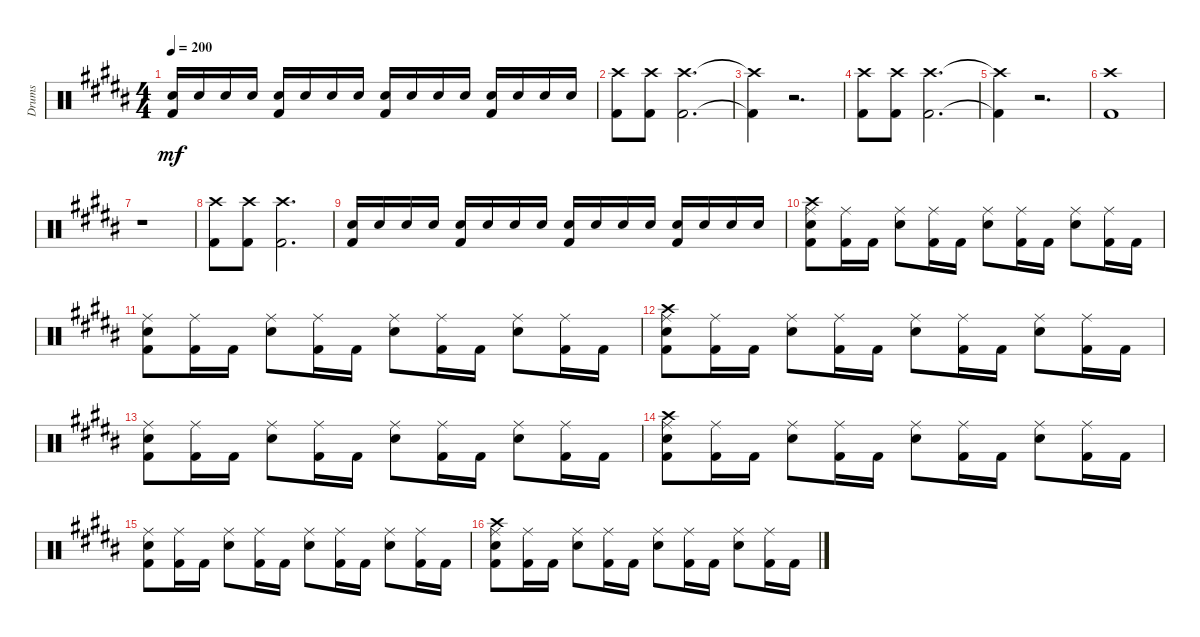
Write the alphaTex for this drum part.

\track ("Drums" "Drums") {instrument percussion}
\staff {score}
\articulation defaults
\ts (4 4)
\tempo 200
\clef neutral
\ks b
("Kick (hit) 2" "Snare (hit) 2").16{dy mf} "Snare (hit) 2".16 "Snare (hit) 2".16 "Snare (hit) 2".16 ("Kick (hit) 2" "Snare (hit) 2").16 "Snare (hit) 2".16 "Snare (hit) 2".16 "Snare (hit) 2".16 ("Kick (hit) 2" "Snare (hit) 2").16 "Snare (hit) 2".16 "Snare (hit) 2".16 "Snare (hit) 2".16 ("Kick (hit) 2" "Snare (hit) 2").16 "Snare (hit) 2".16 "Snare (hit) 2".16 "Snare (hit) 2".16 |
("Kick (hit) 2" "Crash high (hit)").8 ("Kick (hit) 2" "Crash high (hit)").8 ("Kick (hit) 2" "Crash high (hit)").2{d} |
("Kick (hit) 2"{t} "Crash high (hit)"{t}).4 r.2{d} |
("Kick (hit) 2" "Crash high (hit)").8 ("Kick (hit) 2" "Crash high (hit)").8 ("Kick (hit) 2" "Crash high (hit)").2{d} |
("Kick (hit) 2"{t} "Crash high (hit)"{t}).4 r.2{d} |
("Kick (hit) 2" "Crash high (hit)").1 |
r.1 |
("Kick (hit) 2" "Crash high (hit)").8 ("Kick (hit) 2" "Crash high (hit)").8 ("Kick (hit) 2" "Crash high (hit)").2{d} |
("Kick (hit) 2" "Snare (hit) 2").16 "Snare (hit) 2".16 "Snare (hit) 2".16 "Snare (hit) 2".16 ("Kick (hit) 2" "Snare (hit) 2").16 "Snare (hit) 2".16 "Snare (hit) 2".16 "Snare (hit) 2".16 ("Kick (hit) 2" "Snare (hit) 2").16 "Snare (hit) 2".16 "Snare (hit) 2".16 "Snare (hit) 2".16 ("Kick (hit) 2" "Snare (hit) 2").16 "Snare (hit) 2".16 "Snare (hit) 2".16 "Snare (hit) 2".16 |
("Kick (hit) 2" "Snare (hit) 2" "Ride (middle)" "Crash high (hit)").8 ("Kick (hit) 2" "Ride (middle)").16 "Kick (hit) 2".16 ("Snare (hit) 2" "Ride (middle)").8 ("Kick (hit) 2" "Ride (middle)").16 "Kick (hit) 2".16 ("Snare (hit) 2" "Ride (middle)").8 ("Kick (hit) 2" "Ride (middle)").16 "Kick (hit) 2".16 ("Snare (hit) 2" "Ride (middle)").8 ("Kick (hit) 2" "Ride (middle)").16 "Kick (hit) 2".16 |
("Kick (hit) 2" "Snare (hit) 2" "Ride (middle)").8 ("Kick (hit) 2" "Ride (middle)").16 "Kick (hit) 2".16 ("Snare (hit) 2" "Ride (middle)").8 ("Kick (hit) 2" "Ride (middle)").16 "Kick (hit) 2".16 ("Snare (hit) 2" "Ride (middle)").8 ("Kick (hit) 2" "Ride (middle)").16 "Kick (hit) 2".16 ("Snare (hit) 2" "Ride (middle)").8 ("Kick (hit) 2" "Ride (middle)").16 "Kick (hit) 2".16 |
("Kick (hit) 2" "Snare (hit) 2" "Ride (middle)" "Crash high (hit)").8 ("Kick (hit) 2" "Ride (middle)").16 "Kick (hit) 2".16 ("Snare (hit) 2" "Ride (middle)").8 ("Kick (hit) 2" "Ride (middle)").16 "Kick (hit) 2".16 ("Snare (hit) 2" "Ride (middle)").8 ("Kick (hit) 2" "Ride (middle)").16 "Kick (hit) 2".16 ("Snare (hit) 2" "Ride (middle)").8 ("Kick (hit) 2" "Ride (middle)").16 "Kick (hit) 2".16 |
("Kick (hit) 2" "Snare (hit) 2" "Ride (middle)").8 ("Kick (hit) 2" "Ride (middle)").16 "Kick (hit) 2".16 ("Snare (hit) 2" "Ride (middle)").8 ("Kick (hit) 2" "Ride (middle)").16 "Kick (hit) 2".16 ("Snare (hit) 2" "Ride (middle)").8 ("Kick (hit) 2" "Ride (middle)").16 "Kick (hit) 2".16 ("Snare (hit) 2" "Ride (middle)").8 ("Kick (hit) 2" "Ride (middle)").16 "Kick (hit) 2".16 |
("Kick (hit) 2" "Snare (hit) 2" "Ride (middle)" "Crash high (hit)").8 ("Kick (hit) 2" "Ride (middle)").16 "Kick (hit) 2".16 ("Snare (hit) 2" "Ride (middle)").8 ("Kick (hit) 2" "Ride (middle)").16 "Kick (hit) 2".16 ("Snare (hit) 2" "Ride (middle)").8 ("Kick (hit) 2" "Ride (middle)").16 "Kick (hit) 2".16 ("Snare (hit) 2" "Ride (middle)").8 ("Kick (hit) 2" "Ride (middle)").16 "Kick (hit) 2".16 |
("Kick (hit) 2" "Snare (hit) 2" "Ride (middle)").8 ("Kick (hit) 2" "Ride (middle)").16 "Kick (hit) 2".16 ("Snare (hit) 2" "Ride (middle)").8 ("Kick (hit) 2" "Ride (middle)").16 "Kick (hit) 2".16 ("Snare (hit) 2" "Ride (middle)").8 ("Kick (hit) 2" "Ride (middle)").16 "Kick (hit) 2".16 ("Snare (hit) 2" "Ride (middle)").8 ("Kick (hit) 2" "Ride (middle)").16 "Kick (hit) 2".16 |
("Kick (hit) 2" "Snare (hit) 2" "Ride (middle)" "Crash high (hit)").8 ("Kick (hit) 2" "Ride (middle)").16 "Kick (hit) 2".16 ("Snare (hit) 2" "Ride (middle)").8 ("Kick (hit) 2" "Ride (middle)").16 "Kick (hit) 2".16 ("Snare (hit) 2" "Ride (middle)").8 ("Kick (hit) 2" "Ride (middle)").16 "Kick (hit) 2".16 ("Snare (hit) 2" "Ride (middle)").8 ("Kick (hit) 2" "Ride (middle)").16 "Kick (hit) 2".16
